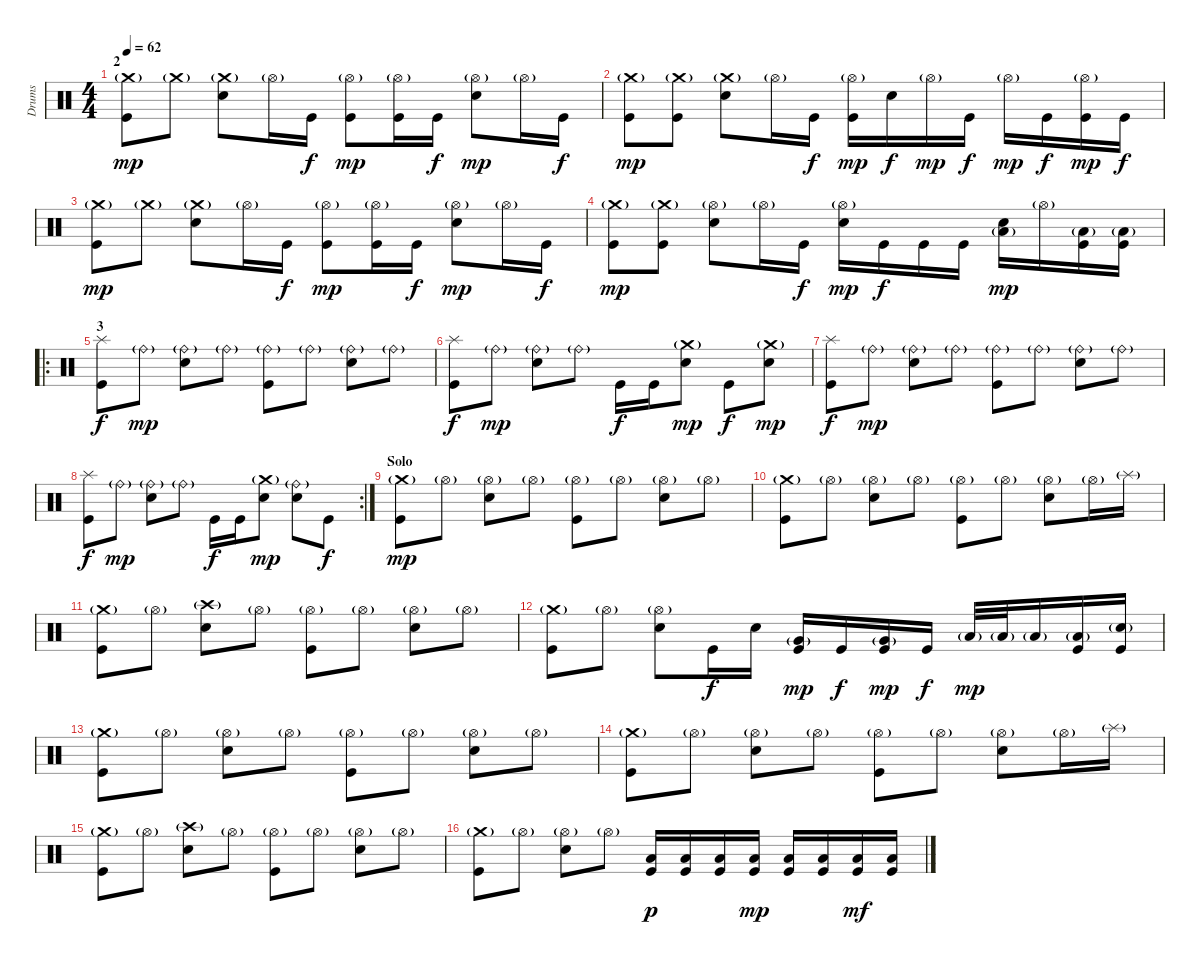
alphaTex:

\track ("Drums" "Drums") {instrument percussion}
\staff {score}
\articulation defaults
\ts (4 4)
\section ("" "2")
\tempo 62
\clef neutral
\ks c
("Kick (hit)" "Crash medium (hit)"{g}).8{dy mp} "Crash medium (hit)"{g}.8 ("Electric Snare (hit)" "Crash medium (hit)"{g}).8 "Hi-Hat (open)"{g}.16 "Kick (hit)".16{dy f} ("Kick (hit)" "Hi-Hat (open)"{g}).8{dy mp} ("Kick (hit)" "Hi-Hat (open)"{g}).16 "Kick (hit)".16{dy f} ("Electric Snare (hit)" "Hi-Hat (open)"{g}).8{dy mp} "Hi-Hat (open)"{g}.16 "Kick (hit)".16{dy f} |
("Kick (hit)" "Crash medium (hit)"{g}).8{dy mp} ("Kick (hit)" "Crash medium (hit)"{g}).8 ("Electric Snare (hit)" "Crash medium (hit)"{g}).8 "Hi-Hat (open)"{g}.16 "Kick (hit)".16{dy f} ("Kick (hit)" "Hi-Hat (open)"{g}).16{dy mp} "Electric Snare (hit)".16{dy f} "Hi-Hat (open)"{g}.16{dy mp} "Kick (hit)".16{dy f} "Hi-Hat (open)"{g}.16{dy mp} "Kick (hit)".16{dy f} ("Kick (hit)" "Hi-Hat (open)"{g}).16{dy mp} "Kick (hit)".16{dy f} |
("Kick (hit)" "Crash medium (hit)"{g}).8{dy mp} "Crash medium (hit)"{g}.8 ("Electric Snare (hit)" "Crash medium (hit)"{g}).8 "Hi-Hat (open)"{g}.16 "Kick (hit)".16{dy f} ("Kick (hit)" "Hi-Hat (open)"{g}).8{dy mp} ("Kick (hit)" "Hi-Hat (open)"{g}).16 "Kick (hit)".16{dy f} ("Electric Snare (hit)" "Hi-Hat (open)"{g}).8{dy mp} "Hi-Hat (open)"{g}.16 "Kick (hit)".16{dy f} |
("Kick (hit)" "Crash medium (hit)"{g}).8{dy mp} ("Kick (hit)" "Crash medium (hit)"{g}).8 ("Electric Snare (hit)" "Hi-Hat (open)"{g}).8 "Hi-Hat (open)"{g}.16 "Kick (hit)".16{dy f} ("Electric Snare (hit)" "Hi-Hat (open)"{g}).16{dy mp} "Kick (hit)".16{dy f} "Kick (hit)".16 "Kick (hit)".16 ("Electric Snare (hit)" "Low Floor Tom (hit)"{g}).16{dy mp} "Hi-Hat (open)"{g}.16 ("Kick (hit)" "Low Floor Tom (hit)"{g}).16 ("Kick (hit)" "Low Floor Tom (hit)"{g}).16 |
\ro
\section ("" "3")
("Kick (hit)" "Splash (hit)").8{dy f} "Ride (bell)"{g}.8{dy mp} ("Electric Snare (hit)" "Ride (bell)"{g}).8 "Ride (bell)"{g}.8 ("Kick (hit)" "Ride (bell)"{g}).8 "Ride (bell)"{g}.8 ("Electric Snare (hit)" "Ride (bell)"{g}).8 "Ride (bell)"{g}.8 |
("Kick (hit)" "Splash (hit)").8{dy f} "Ride (bell)"{g}.8{dy mp} ("Electric Snare (hit)" "Ride (bell)"{g}).8 "Ride (bell)"{g}.8 "Kick (hit)".16{dy f} "Kick (hit)".16 ("Electric Snare (hit)" "Crash medium (hit)"{g}).8{dy mp} "Kick (hit)".8{dy f} ("Electric Snare (hit)" "Crash medium (hit)"{g}).8{dy mp} |
("Kick (hit)" "Splash (hit)").8{dy f} "Ride (bell)"{g}.8{dy mp} ("Electric Snare (hit)" "Ride (bell)"{g}).8 "Ride (bell)"{g}.8 ("Kick (hit)" "Ride (bell)"{g}).8 "Ride (bell)"{g}.8 ("Electric Snare (hit)" "Ride (bell)"{g}).8 "Ride (bell)"{g}.8 |
\rc 2
("Kick (hit)" "Splash (hit)").8{dy f} "Ride (bell)"{g}.8{dy mp} ("Electric Snare (hit)" "Ride (bell)"{g}).8 "Ride (bell)"{g}.8 "Kick (hit)".16{dy f} "Kick (hit)".16 ("Electric Snare (hit)" "Crash medium (hit)"{g}).8{dy mp} ("Electric Snare (hit)" "Ride (bell)"{g}).8 "Kick (hit)".8{dy f} |
\section ("" "Solo")
("Kick (hit)" "Crash medium (hit)"{g}).8{dy mp} "Hi-Hat (open)"{g}.8 ("Electric Snare (hit)" "Hi-Hat (open)"{g}).8 "Hi-Hat (open)"{g}.8 ("Kick (hit)" "Hi-Hat (open)"{g}).8 "Hi-Hat (open)"{g}.8 ("Electric Snare (hit)" "Hi-Hat (open)"{g}).8 "Hi-Hat (open)"{g}.8 |
("Kick (hit)" "Crash medium (hit)"{g}).8 "Hi-Hat (open)"{g}.8 ("Electric Snare (hit)" "Hi-Hat (open)"{g}).8 "Hi-Hat (open)"{g}.8 ("Kick (hit)" "Hi-Hat (open)"{g}).8 "Hi-Hat (open)"{g}.8 ("Electric Snare (hit)" "Hi-Hat (open)"{g}).8 "Hi-Hat (open)"{g}.16 "Splash (hit)"{g}.16 |
("Kick (hit)" "Crash medium (hit)"{g}).8 "Hi-Hat (open)"{g}.8 ("Electric Snare (hit)" "Crash high (hit)"{g}).8 "Hi-Hat (open)"{g}.8 ("Kick (hit)" "Hi-Hat (open)"{g}).8 "Hi-Hat (open)"{g}.8 ("Electric Snare (hit)" "Hi-Hat (open)"{g}).8 "Hi-Hat (open)"{g}.8 |
("Kick (hit)" "Crash medium (hit)"{g}).8 "Hi-Hat (open)"{g}.8 ("Electric Snare (hit)" "Hi-Hat (open)"{g}).8 "Kick (hit)".16{dy f} "Electric Snare (hit)".16 ("Kick (hit)" "Very Low Tom (hit)"{g}).16{dy mp} "Kick (hit)".16{dy f} ("Kick (hit)" "Very Low Tom (hit)"{g}).16{dy mp} "Kick (hit)".16{dy f} "Low Tom (hit)"{g}.32{dy mp} "Low Tom (hit)"{g}.32 "Low Tom (hit)"{g}.16 ("Kick (hit)" "Low Floor Tom (hit)"{g}).16 ("Kick (hit)" "Snare (hit)"{g}).16 |
("Kick (hit)" "Crash medium (hit)"{g}).8 "Hi-Hat (open)"{g}.8 ("Electric Snare (hit)" "Hi-Hat (open)"{g}).8 "Hi-Hat (open)"{g}.8 ("Kick (hit)" "Hi-Hat (open)"{g}).8 "Hi-Hat (open)"{g}.8 ("Electric Snare (hit)" "Hi-Hat (open)"{g}).8 "Hi-Hat (open)"{g}.8 |
("Kick (hit)" "Crash medium (hit)"{g}).8 "Hi-Hat (open)"{g}.8 ("Electric Snare (hit)" "Hi-Hat (open)"{g}).8 "Hi-Hat (open)"{g}.8 ("Kick (hit)" "Hi-Hat (open)"{g}).8 "Hi-Hat (open)"{g}.8 ("Electric Snare (hit)" "Hi-Hat (open)"{g}).8 "Hi-Hat (open)"{g}.16 "Splash (hit)"{g}.16 |
("Kick (hit)" "Crash medium (hit)"{g}).8 "Hi-Hat (open)"{g}.8 ("Electric Snare (hit)" "Crash high (hit)"{g}).8 "Hi-Hat (open)"{g}.8 ("Kick (hit)" "Hi-Hat (open)"{g}).8 "Hi-Hat (open)"{g}.8 ("Electric Snare (hit)" "Hi-Hat (open)"{g}).8 "Hi-Hat (open)"{g}.8 |
("Kick (hit)" "Crash medium (hit)"{g}).8 "Hi-Hat (open)"{g}.8 ("Electric Snare (hit)" "Hi-Hat (open)"{g}).8 "Hi-Hat (open)"{g}.8 ("Kick (hit)" "Low Floor Tom (hit)").16{dy p} ("Kick (hit)" "Low Floor Tom (hit)").16 ("Kick (hit)" "Low Floor Tom (hit)").16 ("Kick (hit)" "Low Floor Tom (hit)").16{dy mp} ("Kick (hit)" "Low Floor Tom (hit)").16 ("Kick (hit)" "Low Floor Tom (hit)").16 ("Kick (hit)" "Low Floor Tom (hit)").16{dy mf} ("Kick (hit)" "Low Floor Tom (hit)").16
